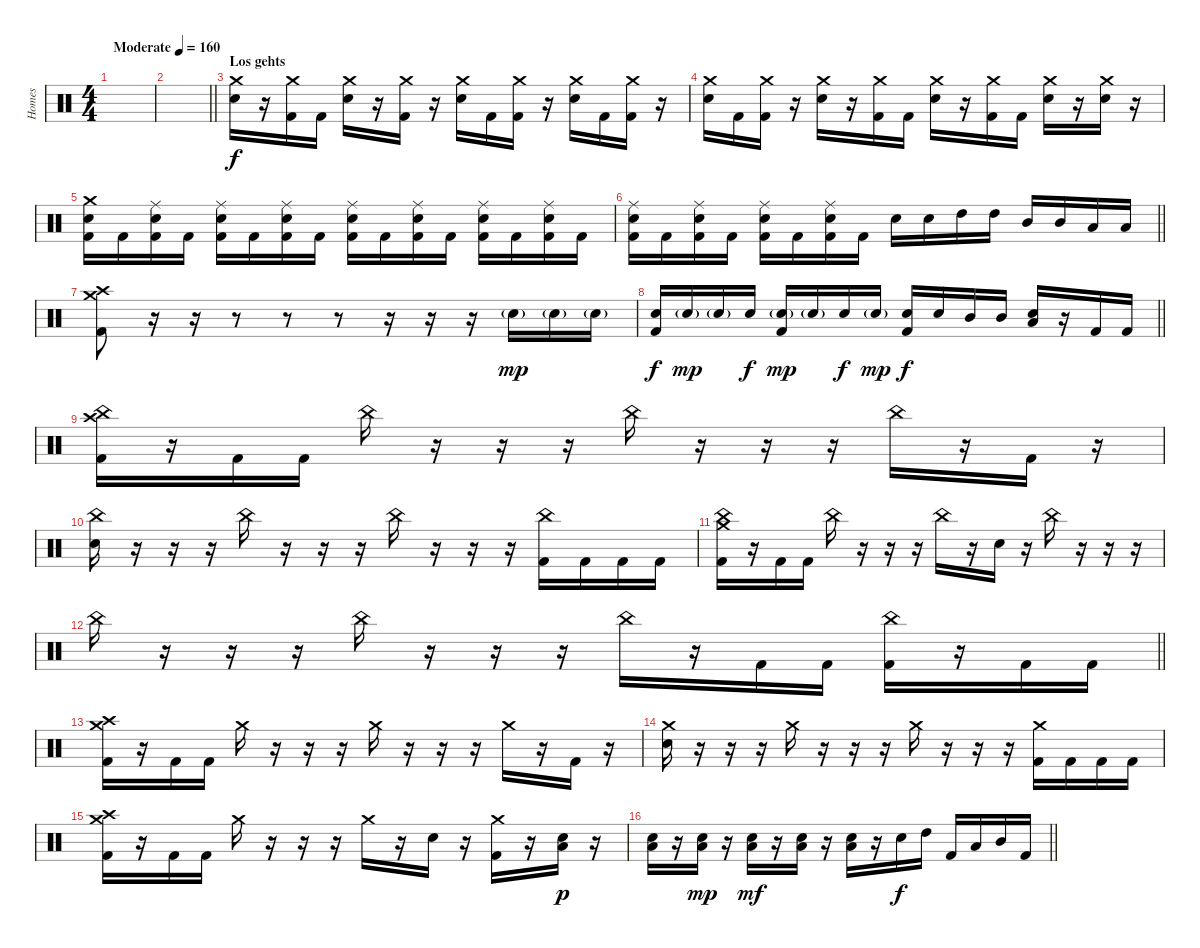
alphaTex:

\track ("Homes" "Homes") {instrument percussion}
\staff {score}
\articulation defaults
\ts (4 4)
\tempo (160 "Moderate")
\clef neutral
\ks c
|
\barLineRight lightlight
|
\section ("" "Los gehts")
("Crash medium (hit)" "Electric Snare (hit)").16 r.16 ("Crash medium (hit)" "Kick (hit) 2").16 "Kick (hit) 2".16 ("Crash medium (hit)" "Electric Snare (hit)").16 r.16 ("Crash medium (hit)" "Kick (hit) 2").16 r.16 ("Crash medium (hit)" "Electric Snare (hit)").16 "Kick (hit) 2".16 ("Crash medium (hit)" "Kick (hit) 2").16 r.16 ("Crash medium (hit)" "Electric Snare (hit)").16 "Kick (hit) 2".16 ("Crash medium (hit)" "Kick (hit) 2").16 r.16 |
("Crash medium (hit)" "Electric Snare (hit)").16 "Kick (hit) 2".16 ("Crash medium (hit)" "Kick (hit) 2").16 r.16 ("Crash medium (hit)" "Electric Snare (hit)").16 r.16 ("Crash medium (hit)" "Kick (hit) 2").16 "Kick (hit) 2".16 ("Crash medium (hit)" "Electric Snare (hit)").16 r.16 ("Crash medium (hit)" "Kick (hit) 2").16 "Kick (hit) 2".16 ("Crash medium (hit)" "Electric Snare (hit)").16 r.16 ("Crash medium (hit)" "Electric Snare (hit)").16 r.16 |
("Crash medium (hit)" "Electric Snare (hit)" "Kick (hit) 2").16 "Kick (hit) 2".16 ("Ride (middle)" "Electric Snare (hit)" "Kick (hit) 2").16 "Kick (hit) 2".16 ("Ride (middle)" "Electric Snare (hit)" "Kick (hit) 2").16 "Kick (hit) 2".16 ("Ride (middle)" "Electric Snare (hit)" "Kick (hit) 2").16 "Kick (hit) 2".16 ("Ride (middle)" "Electric Snare (hit)" "Kick (hit) 2").16 "Kick (hit) 2".16 ("Ride (middle)" "Electric Snare (hit)" "Kick (hit) 2").16 "Kick (hit) 2".16 ("Ride (middle)" "Electric Snare (hit)" "Kick (hit) 2").16 "Kick (hit) 2".16 ("Ride (middle)" "Electric Snare (hit)" "Kick (hit) 2").16 "Kick (hit) 2".16 |
\barLineRight lightlight
("Ride (middle)" "Electric Snare (hit)" "Kick (hit) 2").16 "Kick (hit) 2".16 ("Ride (middle)" "Electric Snare (hit)" "Kick (hit) 2").16 "Kick (hit) 2".16 ("Ride (middle)" "Electric Snare (hit)" "Kick (hit) 2").16 "Kick (hit) 2".16 ("Ride (middle)" "Electric Snare (hit)" "Kick (hit) 2").16 "Kick (hit) 2".16 "Electric Snare (hit)".16 "Electric Snare (hit)".16 "High Tom (hit)".16 "High Tom (hit)".16 "Mid Tom (hit)".16 "Mid Tom (hit)".16 "Low Tom (hit)".16 "Low Tom (hit)".16 |
("Crash high (hit)" "Crash medium (hit)" "Kick (hit) 2").8 r.16 r.16 r.8 r.8 r.8 r.16 r.16 r.16 "Electric Snare (hit)"{g}.16{dy mp} "Electric Snare (hit)"{g}.16 "Electric Snare (hit)"{g}.16 |
\barLineRight lightlight
("Electric Snare (hit)" "Kick (hit) 2").16{dy f} "Electric Snare (hit)"{g}.16{dy mp} "Electric Snare (hit)"{g}.16 "Electric Snare (hit)".16{dy f} ("Electric Snare (hit)"{g} "Kick (hit) 2").16{dy mp} "Electric Snare (hit)"{g}.16 "Electric Snare (hit)".16{dy f} "Electric Snare (hit)"{g}.16{dy mp} ("Electric Snare (hit)" "Kick (hit) 2").16{dy f} "Electric Snare (hit)".16 "Mid Tom (hit)".16 "Mid Tom (hit)".16 ("Electric Snare (hit)" "Low Tom (hit)").16 r.16 "Kick (hit) 2".16 "Kick (hit) 2".16 |
("China (hit)" "Crash high (hit)" "Kick (hit) 2").16 r.16 "Kick (hit) 2".16 "Kick (hit) 2".16 "China (hit)".16 r.16 r.16 r.16 "China (hit)".16 r.16 r.16 r.16 "China (hit)".16 r.16 "Kick (hit) 2".16 r.16 |
("China (hit)" "Electric Snare (hit)").16 r.16 r.16 r.16 "China (hit)".16 r.16 r.16 r.16 "China (hit)".16 r.16 r.16 r.16 ("China (hit)" "Kick (hit) 2").16 "Kick (hit) 2".16 "Kick (hit) 2".16 "Kick (hit) 2".16 |
("China (hit)" "Crash medium (hit)" "Kick (hit) 2").16 r.16 "Kick (hit) 2".16 "Kick (hit) 2".16 "China (hit)".16 r.16 r.16 r.16 "China (hit)".16 r.16 "Electric Snare (hit)".16 r.16 "China (hit)".16 r.16 r.16 r.16 |
\barLineRight lightlight "China (hit)".16
r.16 r.16 r.16 "China (hit)".16 r.16 r.16 r.16 "China (hit)".16 r.16 "Kick (hit) 2".16 "Kick (hit) 2".16 ("China (hit)" "Kick (hit) 2").16 r.16 "Kick (hit) 2".16 "Kick (hit) 2".16 |
("Crash medium (hit)" "Crash high (hit)" "Kick (hit) 2").16 r.16 "Kick (hit) 2".16 "Kick (hit) 2".16 "Crash medium (hit)".16 r.16 r.16 r.16 "Crash medium (hit)".16 r.16 r.16 r.16 "Crash medium (hit)".16 r.16 "Kick (hit) 2".16 r.16 |
("Crash medium (hit)" "Electric Snare (hit)").16 r.16 r.16 r.16 "Crash medium (hit)".16 r.16 r.16 r.16 "Crash medium (hit)".16 r.16 r.16 r.16 ("Crash medium (hit)" "Kick (hit) 2").16 "Kick (hit) 2".16 "Kick (hit) 2".16 "Kick (hit) 2".16 |
("Crash medium (hit)" "Crash high (hit)" "Kick (hit) 2").16 r.16 "Kick (hit) 2".16 "Kick (hit) 2".16 "Crash medium (hit)".16 r.16 r.16 r.16 "Crash medium (hit)".16 r.16 "Electric Snare (hit)".16 r.16 ("Crash medium (hit)" "Kick (hit) 2").16 r.16 ("Electric Snare (hit)" "Low Tom (hit)").16{dy p} r.16 |
\barLineRight lightlight
("Electric Snare (hit)" "Low Tom (hit)").16 r.16 ("Electric Snare (hit)" "Low Tom (hit)").16{dy mp} r.16 ("Electric Snare (hit)" "Low Tom (hit)").16{dy mf} r.16 ("Electric Snare (hit)" "Low Tom (hit)").16 r.16 ("Electric Snare (hit)" "Low Tom (hit)").16 r.16 "Electric Snare (hit)".16{dy f} "High Tom (hit)".16 "Kick (hit) 2".16 "Low Tom (hit)".16 "Mid Tom (hit)".16 "Kick (hit) 2".16
